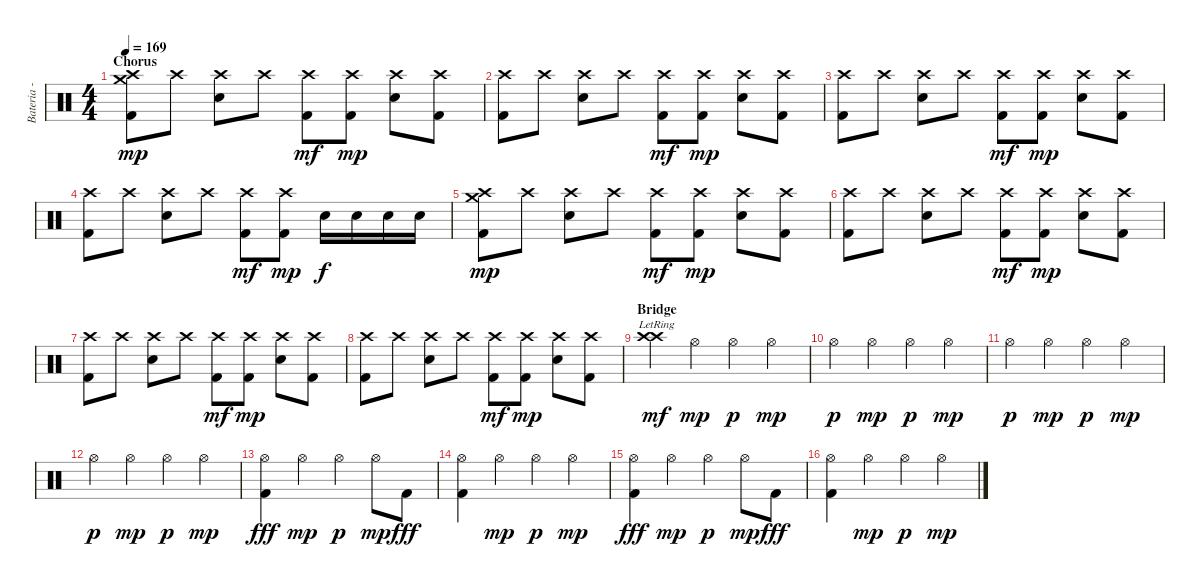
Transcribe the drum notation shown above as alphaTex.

\track ("Bateria - Larzon" "Bateria - ") {instrument percussion}
\staff {score}
\articulation defaults
\ts (4 4)
\section ("" "Chorus")
\tempo 169
\clef neutral
\ks c
("Kick (hit) 2" "Crash medium (hit)" "Crash high (hit)").8{dy mp} "Crash high (hit)".8 ("Electric Snare (hit)" "Crash high (hit)").8 "Crash high (hit)".8 ("Kick (hit) 2" "Crash high (hit)").8{dy mf} ("Kick (hit) 2" "Crash high (hit)").8{dy mp} ("Electric Snare (hit)" "Crash high (hit)").8 ("Kick (hit) 2" "Crash high (hit)").8 |
("Kick (hit) 2" "Crash high (hit)").8 "Crash high (hit)".8 ("Electric Snare (hit)" "Crash high (hit)").8 "Crash high (hit)".8 ("Kick (hit) 2" "Crash high (hit)").8{dy mf} ("Kick (hit) 2" "Crash high (hit)").8{dy mp} ("Electric Snare (hit)" "Crash high (hit)").8 ("Kick (hit) 2" "Crash high (hit)").8 |
("Kick (hit) 2" "Crash high (hit)").8 "Crash high (hit)".8 ("Electric Snare (hit)" "Crash high (hit)").8 "Crash high (hit)".8 ("Kick (hit) 2" "Crash high (hit)").8{dy mf} ("Kick (hit) 2" "Crash high (hit)").8{dy mp} ("Electric Snare (hit)" "Crash high (hit)").8 ("Kick (hit) 2" "Crash high (hit)").8 |
("Kick (hit) 2" "Crash high (hit)").8 "Crash high (hit)".8 ("Electric Snare (hit)" "Crash high (hit)").8 "Crash high (hit)".8 ("Kick (hit) 2" "Crash high (hit)").8{dy mf} ("Kick (hit) 2" "Crash high (hit)").8{dy mp} "Electric Snare (hit)".16{dy f} "Electric Snare (hit)".16 "Electric Snare (hit)".16 "Electric Snare (hit)".16 |
("Kick (hit) 2" "Crash medium (hit)" "Crash high (hit)").8{dy mp} "Crash high (hit)".8 ("Electric Snare (hit)" "Crash high (hit)").8 "Crash high (hit)".8 ("Kick (hit) 2" "Crash high (hit)").8{dy mf} ("Kick (hit) 2" "Crash high (hit)").8{dy mp} ("Electric Snare (hit)" "Crash high (hit)").8 ("Kick (hit) 2" "Crash high (hit)").8 |
("Kick (hit) 2" "Crash high (hit)").8 "Crash high (hit)".8 ("Electric Snare (hit)" "Crash high (hit)").8 "Crash high (hit)".8 ("Kick (hit) 2" "Crash high (hit)").8{dy mf} ("Kick (hit) 2" "Crash high (hit)").8{dy mp} ("Electric Snare (hit)" "Crash high (hit)").8 ("Kick (hit) 2" "Crash high (hit)").8 |
("Kick (hit) 2" "Crash high (hit)").8 "Crash high (hit)".8 ("Electric Snare (hit)" "Crash high (hit)").8 "Crash high (hit)".8 ("Kick (hit) 2" "Crash high (hit)").8{dy mf} ("Kick (hit) 2" "Crash high (hit)").8{dy mp} ("Electric Snare (hit)" "Crash high (hit)").8 ("Kick (hit) 2" "Crash high (hit)").8 |
("Kick (hit) 2" "Crash high (hit)").8 "Crash high (hit)".8 ("Electric Snare (hit)" "Crash high (hit)").8 "Crash high (hit)".8 ("Kick (hit) 2" "Crash high (hit)").8{dy mf} ("Kick (hit) 2" "Crash high (hit)").8{dy mp} ("Electric Snare (hit)" "Crash high (hit)").8 ("Kick (hit) 2" "Crash high (hit)").8 |
\section ("" "Bridge")
("Crash high (hit)" "Crash high (hit)"{lr}).4{dy mf} "Hi-Hat (open)".4{dy mp} "Hi-Hat (open)".4{dy p} "Hi-Hat (open)".4{dy mp} |
"Hi-Hat (open)".4{dy p} "Hi-Hat (open)".4{dy mp} "Hi-Hat (open)".4{dy p} "Hi-Hat (open)".4{dy mp} |
"Hi-Hat (open)".4{dy p} "Hi-Hat (open)".4{dy mp} "Hi-Hat (open)".4{dy p} "Hi-Hat (open)".4{dy mp} |
"Hi-Hat (open)".4{dy p} "Hi-Hat (open)".4{dy mp} "Hi-Hat (open)".4{dy p} "Hi-Hat (open)".4{dy mp} |
("Hi-Hat (open)" "Kick (hit) 2").4{dy fff} "Hi-Hat (open)".4{dy mp} "Hi-Hat (open)".4{dy p} "Hi-Hat (open)".8{dy mp} "Kick (hit) 2".8{dy fff} |
("Hi-Hat (open)" "Kick (hit) 2").4 "Hi-Hat (open)".4{dy mp} "Hi-Hat (open)".4{dy p} "Hi-Hat (open)".4{dy mp} |
("Hi-Hat (open)" "Kick (hit) 2").4{dy fff} "Hi-Hat (open)".4{dy mp} "Hi-Hat (open)".4{dy p} "Hi-Hat (open)".8{dy mp} "Kick (hit) 2".8{dy fff} |
("Hi-Hat (open)" "Kick (hit) 2").4 "Hi-Hat (open)".4{dy mp} "Hi-Hat (open)".4{dy p} "Hi-Hat (open)".4{dy mp}
